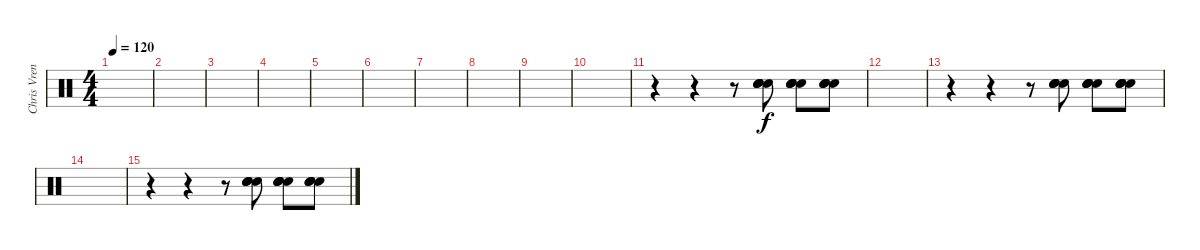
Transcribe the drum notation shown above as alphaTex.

\track ("Chris Vrenna" "Chris Vren") {instrument percussion}
\staff {score}
\articulation defaults
\ts (4 4)
\tempo 120
\clef neutral
\ks c
|
|
|
|
|
|
|
|
|
|
r.4 r.4 r.8 ("Hand Clap (hit)" "Hand Clap (hit)" "Hand Clap (hit)" "Hand Clap (hit)").8 ("Hand Clap (hit)" "Hand Clap (hit)" "Hand Clap (hit)" "Hand Clap (hit)").8 ("Hand Clap (hit)" "Hand Clap (hit)" "Hand Clap (hit)" "Hand Clap (hit)").8 |
|
r.4 r.4 r.8 ("Hand Clap (hit)" "Hand Clap (hit)" "Hand Clap (hit)" "Hand Clap (hit)").8 ("Hand Clap (hit)" "Hand Clap (hit)" "Hand Clap (hit)" "Hand Clap (hit)").8 ("Hand Clap (hit)" "Hand Clap (hit)" "Hand Clap (hit)" "Hand Clap (hit)").8 |
|
r.4 r.4 r.8 ("Hand Clap (hit)" "Hand Clap (hit)" "Hand Clap (hit)" "Hand Clap (hit)").8 ("Hand Clap (hit)" "Hand Clap (hit)" "Hand Clap (hit)" "Hand Clap (hit)").8 ("Hand Clap (hit)" "Hand Clap (hit)" "Hand Clap (hit)" "Hand Clap (hit)").8
